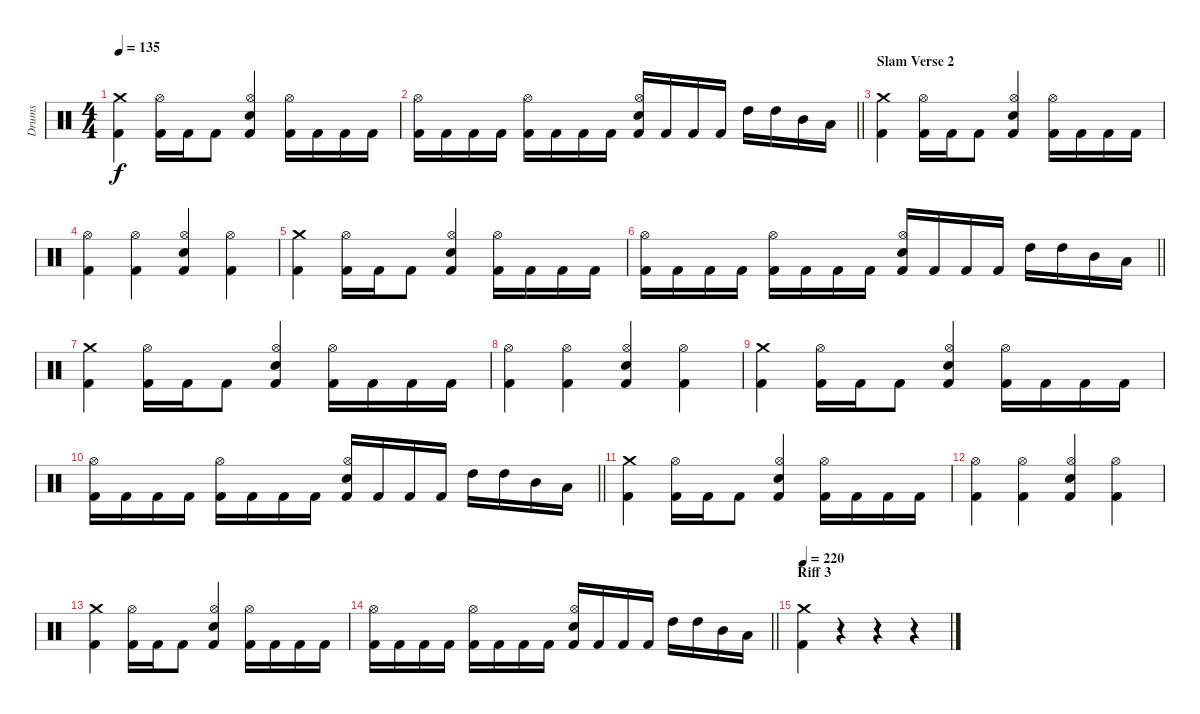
\track ("Drums" "Drums") {instrument percussion}
\staff {score}
\articulation defaults
\ts (4 4)
\tempo 135
\clef neutral
\ks c
("Crash medium (hit)" "Kick (hit) 2").4{dy f} ("Hi-Hat (open)" "Kick (hit) 2").16 "Kick (hit) 2".16 "Kick (hit) 2".8 ("Hi-Hat (open)" "Electric Snare (hit)" "Kick (hit) 2").4 ("Hi-Hat (open)" "Kick (hit) 2").16 "Kick (hit) 2".16 "Kick (hit) 2".16 "Kick (hit) 2".16 |
\barLineRight lightlight
("Hi-Hat (open)" "Kick (hit) 2").16 "Kick (hit) 2".16 "Kick (hit) 2".16 "Kick (hit) 2".16 ("Hi-Hat (open)" "Kick (hit) 2").16 "Kick (hit) 2".16 "Kick (hit) 2".16 "Kick (hit) 2".16 ("Hi-Hat (open)" "Electric Snare (hit)" "Kick (hit) 2").16 "Kick (hit) 2".16 "Kick (hit) 2".16 "Kick (hit) 2".16 "High Tom (hit)".16 "High Tom (hit)".16 "Mid Tom (hit)".16 "Low Tom (hit)".16 |
\section ("" "Slam Verse 2")
("Crash medium (hit)" "Kick (hit) 2").4 ("Hi-Hat (open)" "Kick (hit) 2").16 "Kick (hit) 2".16 "Kick (hit) 2".8 ("Hi-Hat (open)" "Electric Snare (hit)" "Kick (hit) 2").4 ("Hi-Hat (open)" "Kick (hit) 2").16 "Kick (hit) 2".16 "Kick (hit) 2".16 "Kick (hit) 2".16 |
("Hi-Hat (open)" "Kick (hit) 2").4 ("Hi-Hat (open)" "Kick (hit) 2").4 ("Hi-Hat (open)" "Electric Snare (hit)" "Kick (hit) 2").4 ("Hi-Hat (open)" "Kick (hit) 2").4 |
("Crash medium (hit)" "Kick (hit) 2").4 ("Hi-Hat (open)" "Kick (hit) 2").16 "Kick (hit) 2".16 "Kick (hit) 2".8 ("Hi-Hat (open)" "Electric Snare (hit)" "Kick (hit) 2").4 ("Hi-Hat (open)" "Kick (hit) 2").16 "Kick (hit) 2".16 "Kick (hit) 2".16 "Kick (hit) 2".16 |
\barLineRight lightlight
("Hi-Hat (open)" "Kick (hit) 2").16 "Kick (hit) 2".16 "Kick (hit) 2".16 "Kick (hit) 2".16 ("Hi-Hat (open)" "Kick (hit) 2").16 "Kick (hit) 2".16 "Kick (hit) 2".16 "Kick (hit) 2".16 ("Hi-Hat (open)" "Electric Snare (hit)" "Kick (hit) 2").16 "Kick (hit) 2".16 "Kick (hit) 2".16 "Kick (hit) 2".16 "High Tom (hit)".16 "High Tom (hit)".16 "Mid Tom (hit)".16 "Low Tom (hit)".16 |
("Crash medium (hit)" "Kick (hit) 2").4 ("Hi-Hat (open)" "Kick (hit) 2").16 "Kick (hit) 2".16 "Kick (hit) 2".8 ("Hi-Hat (open)" "Electric Snare (hit)" "Kick (hit) 2").4 ("Hi-Hat (open)" "Kick (hit) 2").16 "Kick (hit) 2".16 "Kick (hit) 2".16 "Kick (hit) 2".16 |
("Hi-Hat (open)" "Kick (hit) 2").4 ("Hi-Hat (open)" "Kick (hit) 2").4 ("Hi-Hat (open)" "Electric Snare (hit)" "Kick (hit) 2").4 ("Hi-Hat (open)" "Kick (hit) 2").4 |
("Crash medium (hit)" "Kick (hit) 2").4 ("Hi-Hat (open)" "Kick (hit) 2").16 "Kick (hit) 2".16 "Kick (hit) 2".8 ("Hi-Hat (open)" "Electric Snare (hit)" "Kick (hit) 2").4 ("Hi-Hat (open)" "Kick (hit) 2").16 "Kick (hit) 2".16 "Kick (hit) 2".16 "Kick (hit) 2".16 |
\barLineRight lightlight
("Hi-Hat (open)" "Kick (hit) 2").16 "Kick (hit) 2".16 "Kick (hit) 2".16 "Kick (hit) 2".16 ("Hi-Hat (open)" "Kick (hit) 2").16 "Kick (hit) 2".16 "Kick (hit) 2".16 "Kick (hit) 2".16 ("Hi-Hat (open)" "Electric Snare (hit)" "Kick (hit) 2").16 "Kick (hit) 2".16 "Kick (hit) 2".16 "Kick (hit) 2".16 "High Tom (hit)".16 "High Tom (hit)".16 "Mid Tom (hit)".16 "Low Tom (hit)".16 |
("Crash medium (hit)" "Kick (hit) 2").4 ("Hi-Hat (open)" "Kick (hit) 2").16 "Kick (hit) 2".16 "Kick (hit) 2".8 ("Hi-Hat (open)" "Electric Snare (hit)" "Kick (hit) 2").4 ("Hi-Hat (open)" "Kick (hit) 2").16 "Kick (hit) 2".16 "Kick (hit) 2".16 "Kick (hit) 2".16 |
("Hi-Hat (open)" "Kick (hit) 2").4 ("Hi-Hat (open)" "Kick (hit) 2").4 ("Hi-Hat (open)" "Electric Snare (hit)" "Kick (hit) 2").4 ("Hi-Hat (open)" "Kick (hit) 2").4 |
("Crash medium (hit)" "Kick (hit) 2").4 ("Hi-Hat (open)" "Kick (hit) 2").16 "Kick (hit) 2".16 "Kick (hit) 2".8 ("Hi-Hat (open)" "Electric Snare (hit)" "Kick (hit) 2").4 ("Hi-Hat (open)" "Kick (hit) 2").16 "Kick (hit) 2".16 "Kick (hit) 2".16 "Kick (hit) 2".16 |
\barLineRight lightlight
("Hi-Hat (open)" "Kick (hit) 2").16 "Kick (hit) 2".16 "Kick (hit) 2".16 "Kick (hit) 2".16 ("Hi-Hat (open)" "Kick (hit) 2").16 "Kick (hit) 2".16 "Kick (hit) 2".16 "Kick (hit) 2".16 ("Hi-Hat (open)" "Electric Snare (hit)" "Kick (hit) 2").16 "Kick (hit) 2".16 "Kick (hit) 2".16 "Kick (hit) 2".16 "High Tom (hit)".16 "High Tom (hit)".16 "Mid Tom (hit)".16 "Low Tom (hit)".16 |
\section ("" "Riff 3")
\tempo 220
("Crash medium (hit)" "Kick (hit) 2").4 r.4 r.4 r.4
